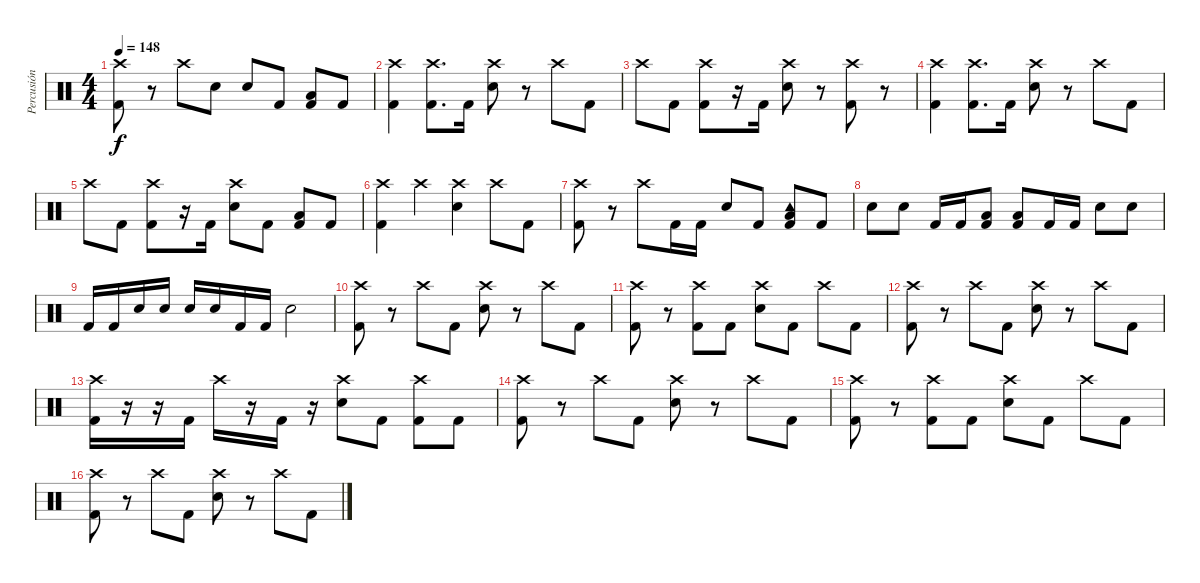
\track ("Percusión" "Percusión") {instrument percussion}
\staff {score}
\articulation defaults
\ts (4 4)
\tempo 148
\clef neutral
\ks c
("Crash high (hit)" "Kick (hit) 2").8{dy f} r.8 "Crash high (hit)".8 "Electric Snare (hit)".8 "Electric Snare (hit)".8 "Kick (hit) 2".8 ("Low Tom (hit)" "Kick (hit) 2").8 "Kick (hit) 2".8 |
("Crash high (hit)" "Kick (hit) 2").4 ("Crash high (hit)" "Kick (hit) 2").8{d} "Kick (hit) 2".16 ("Crash high (hit)" "Electric Snare (hit)").8 r.8 "Crash high (hit)".8 "Kick (hit) 2".8 |
"Crash high (hit)".8 "Kick (hit) 2".8 ("Crash high (hit)" "Kick (hit) 2").8 r.16 "Kick (hit) 2".16 ("Crash high (hit)" "Electric Snare (hit)").8 r.8 ("Crash high (hit)" "Kick (hit) 2").8 r.8 |
("Crash high (hit)" "Kick (hit) 2").4 ("Crash high (hit)" "Kick (hit) 2").8{d} "Kick (hit) 2".16 ("Crash high (hit)" "Electric Snare (hit)").8 r.8 "Crash high (hit)".8 "Kick (hit) 2".8 |
"Crash high (hit)".8 "Kick (hit) 2".8 ("Crash high (hit)" "Kick (hit) 2").8 r.16 "Kick (hit) 2".16 ("Crash high (hit)" "Electric Snare (hit)").8 "Kick (hit) 2".8 ("Low Tom (hit)" "Kick (hit) 2").8 "Kick (hit) 2".8 |
("Crash high (hit)" "Kick (hit) 2").4 "Crash high (hit)".4 ("Crash high (hit)" "Electric Snare (hit)").4 "Crash high (hit)".8 "Kick (hit) 2".8 |
("Crash high (hit)" "Kick (hit) 2").8 r.8 "Crash high (hit)".8 "Kick (hit) 2".16 "Kick (hit) 2".16 "Electric Snare (hit)".8 "Kick (hit) 2".8 ("Tambourine (hit)" "Low Tom (hit)" "Kick (hit) 2").8 "Kick (hit) 2".8 |
"Electric Snare (hit)".8 "Electric Snare (hit)".8 "Kick (hit) 2".16 "Kick (hit) 2".16 ("Low Tom (hit)" "Kick (hit) 2").8 ("Low Tom (hit)" "Kick (hit) 2").8 "Kick (hit) 2".16 "Kick (hit) 2".16 "Electric Snare (hit)".8 "Electric Snare (hit)".8 |
"Kick (hit) 2".16 "Kick (hit) 2".16 "Electric Snare (hit)".16 "Electric Snare (hit)".16 "Electric Snare (hit)".16 "Electric Snare (hit)".16 "Kick (hit) 2".16 "Kick (hit) 2".16 "Electric Snare (hit)".2 |
("Crash high (hit)" "Kick (hit) 2").8 r.8 "Crash high (hit)".8 "Kick (hit) 2".8 ("Crash high (hit)" "Electric Snare (hit)").8 r.8 "Crash high (hit)".8 "Kick (hit) 2".8 |
("Crash high (hit)" "Kick (hit) 2").8 r.8 ("Crash high (hit)" "Kick (hit) 2").8 "Kick (hit) 2".8 ("Crash high (hit)" "Electric Snare (hit)").8 "Kick (hit) 2".8 "Crash high (hit)".8 "Kick (hit) 2".8 |
("Crash high (hit)" "Kick (hit) 2").8 r.8 "Crash high (hit)".8 "Kick (hit) 2".8 ("Crash high (hit)" "Electric Snare (hit)").8 r.8 "Crash high (hit)".8 "Kick (hit) 2".8 |
("Crash high (hit)" "Kick (hit) 2").16 r.16 r.16 "Kick (hit) 2".16 "Crash high (hit)".16 r.16 "Kick (hit) 2".16 r.16 ("Crash high (hit)" "Electric Snare (hit)").8 "Kick (hit) 2".8 ("Crash high (hit)" "Kick (hit) 2").8 "Kick (hit) 2".8 |
("Crash high (hit)" "Kick (hit) 2").8 r.8 "Crash high (hit)".8 "Kick (hit) 2".8 ("Crash high (hit)" "Electric Snare (hit)").8 r.8 "Crash high (hit)".8 "Kick (hit) 2".8 |
("Crash high (hit)" "Kick (hit) 2").8 r.8 ("Crash high (hit)" "Kick (hit) 2").8 "Kick (hit) 2".8 ("Crash high (hit)" "Electric Snare (hit)").8 "Kick (hit) 2".8 "Crash high (hit)".8 "Kick (hit) 2".8 |
("Crash high (hit)" "Kick (hit) 2").8 r.8 "Crash high (hit)".8 "Kick (hit) 2".8 ("Crash high (hit)" "Electric Snare (hit)").8 r.8 "Crash high (hit)".8 "Kick (hit) 2".8
